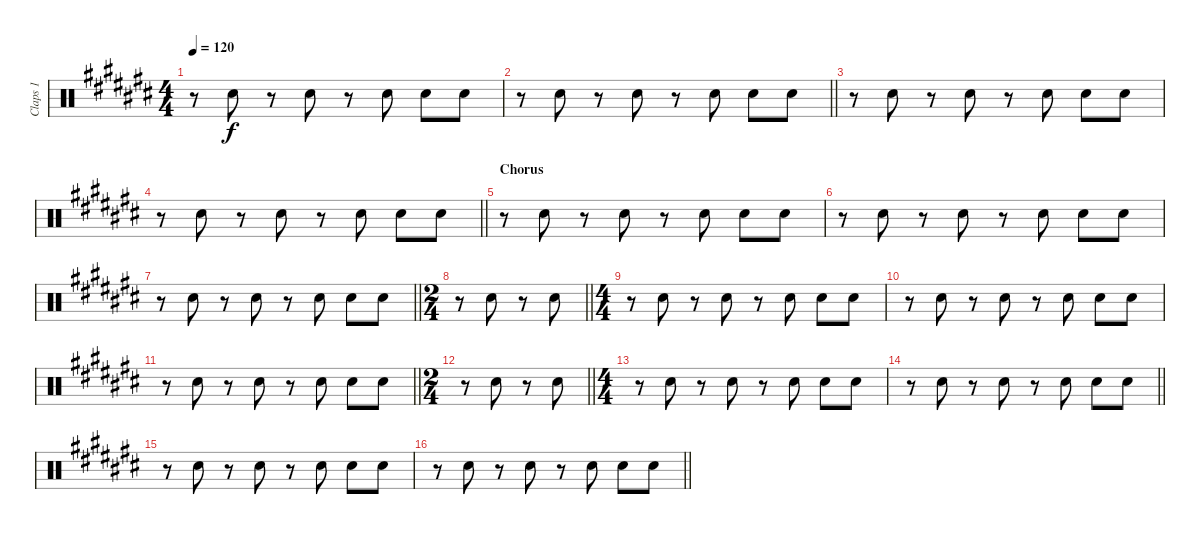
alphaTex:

\track ("Claps 1" "Claps 1") {instrument percussion}
\staff {score}
\articulation defaults
\ts (4 4)
\tempo 120
\clef neutral
\ks c#
r.8{dy f} "Hand Clap (hit)".8 r.8 "Hand Clap (hit)".8 r.8 "Hand Clap (hit)".8 "Hand Clap (hit)".8 "Hand Clap (hit)".8 |
\barLineRight lightlight
r.8 "Hand Clap (hit)".8 r.8 "Hand Clap (hit)".8 r.8 "Hand Clap (hit)".8 "Hand Clap (hit)".8 "Hand Clap (hit)".8 |
r.8 "Hand Clap (hit)".8 r.8 "Hand Clap (hit)".8 r.8 "Hand Clap (hit)".8 "Hand Clap (hit)".8 "Hand Clap (hit)".8 |
\barLineRight lightlight
r.8 "Hand Clap (hit)".8 r.8 "Hand Clap (hit)".8 r.8 "Hand Clap (hit)".8 "Hand Clap (hit)".8 "Hand Clap (hit)".8 |
\section ("" "Chorus")
r.8 "Hand Clap (hit)".8 r.8 "Hand Clap (hit)".8 r.8 "Hand Clap (hit)".8 "Hand Clap (hit)".8 "Hand Clap (hit)".8 |
r.8 "Hand Clap (hit)".8 r.8 "Hand Clap (hit)".8 r.8 "Hand Clap (hit)".8 "Hand Clap (hit)".8 "Hand Clap (hit)".8 |
\barLineRight lightlight
r.8 "Hand Clap (hit)".8 r.8 "Hand Clap (hit)".8 r.8 "Hand Clap (hit)".8 "Hand Clap (hit)".8 "Hand Clap (hit)".8 |
\ts (2 4)
\barLineRight lightlight
r.8 "Hand Clap (hit)".8 r.8 "Hand Clap (hit)".8 |
\ts (4 4)
r.8 "Hand Clap (hit)".8 r.8 "Hand Clap (hit)".8 r.8 "Hand Clap (hit)".8 "Hand Clap (hit)".8 "Hand Clap (hit)".8 |
r.8 "Hand Clap (hit)".8 r.8 "Hand Clap (hit)".8 r.8 "Hand Clap (hit)".8 "Hand Clap (hit)".8 "Hand Clap (hit)".8 |
\barLineRight lightlight
r.8 "Hand Clap (hit)".8 r.8 "Hand Clap (hit)".8 r.8 "Hand Clap (hit)".8 "Hand Clap (hit)".8 "Hand Clap (hit)".8 |
\ts (2 4)
\barLineRight lightlight
r.8 "Hand Clap (hit)".8 r.8 "Hand Clap (hit)".8 |
\ts (4 4)
r.8 "Hand Clap (hit)".8 r.8 "Hand Clap (hit)".8 r.8 "Hand Clap (hit)".8 "Hand Clap (hit)".8 "Hand Clap (hit)".8 |
\barLineRight lightlight
r.8 "Hand Clap (hit)".8 r.8 "Hand Clap (hit)".8 r.8 "Hand Clap (hit)".8 "Hand Clap (hit)".8 "Hand Clap (hit)".8 |
r.8 "Hand Clap (hit)".8 r.8 "Hand Clap (hit)".8 r.8 "Hand Clap (hit)".8 "Hand Clap (hit)".8 "Hand Clap (hit)".8 |
\barLineRight lightlight
r.8 "Hand Clap (hit)".8 r.8 "Hand Clap (hit)".8 r.8 "Hand Clap (hit)".8 "Hand Clap (hit)".8 "Hand Clap (hit)".8
